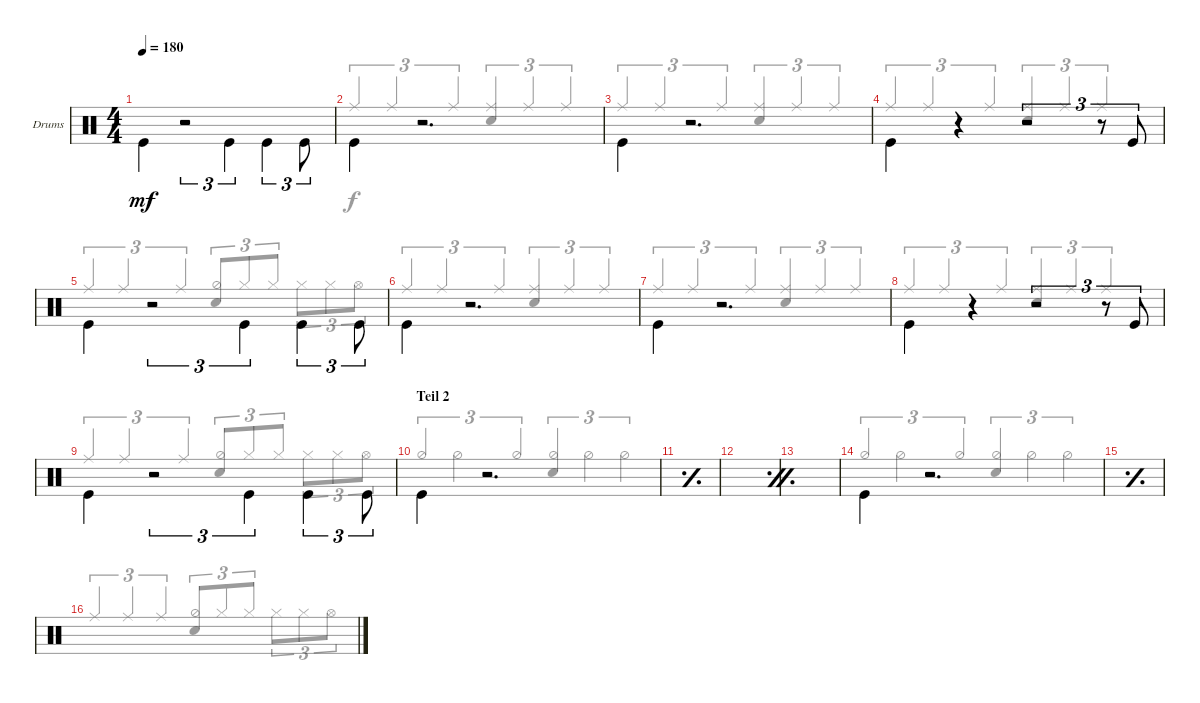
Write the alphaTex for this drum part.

\defaultSystemsLayout 4
\bracketExtendMode groupsimilarinstruments
\multiBarRest
\firstSystemTrackNameOrientation horizontal
\otherSystemsTrackNameOrientation horizontal
\track ("Drumkit" "Drums") {instrument percussion}
\staff {score}
\articulation defaults
\voice
\ts (4 4)
\tempo 180
\clef neutral
\ks c "Kick (hit)".4{dy mf beam invert}
r.2{tu (3 2)} "Kick (hit)".4{tu (3 2) beam invert} "Kick (hit)".4{tu (3 2) beam invert} "Kick (hit)".8{tu (3 2) beam invert} |
"Kick (hit)".4{beam invert} r.2{d} |
"Kick (hit)".4{beam invert} r.2{d} |
"Kick (hit)".4{beam invert} r.4 r.2{tu (3 2)} r.8{tu (3 2)} "Kick (hit)".8{tu (3 2)} |
"Kick (hit)".4{beam invert} r.2{tu (3 2)} "Kick (hit)".4{tu (3 2) beam invert} "Kick (hit)".4{tu (3 2) beam invert} "Kick (hit)".8{tu (3 2) beam invert} |
"Kick (hit)".4{beam invert} r.2{d} |
"Kick (hit)".4{beam invert} r.2{d} |
"Kick (hit)".4{beam invert} r.4 r.2{tu (3 2)} r.8{tu (3 2)} "Kick (hit)".8{tu (3 2)} |
"Kick (hit)".4{beam invert} r.2{tu (3 2)} "Kick (hit)".4{tu (3 2) beam invert} "Kick (hit)".4{tu (3 2) beam invert} "Kick (hit)".8{tu (3 2) beam invert} |
\section ("" "Teil 2")
"Kick (hit)".4{beam invert} r.2{d} |
\simile simple
|
\simile firstofdouble
|
\simile secondofdouble
|
\simile none "Kick (hit)".4{beam invert}
r.2{d} |
\simile simple
|
\simile firstofdouble
\voice
\clef neutral
\ottava regular
\simile none
\ks c "Ride (middle)".4{tu (3 2) dy f beam invert} "Ride (middle)".4{tu (3 2) beam invert} "Ride (middle)".4{tu (3 2) beam invert}
("Snare (hit) 2" "Hi-Hat (half)").8{tu (3 2) beam invert} "Hi-Hat (closed)".8{tu (3 2) beam invert} "Hi-Hat (closed)".8{tu (3 2) beam invert} "Hi-Hat (closed)".8{tu (3 2)} "Hi-Hat (closed)".8{tu (3 2)} "Hi-Hat (open)".8{tu (3 2)} |
"Ride (middle)".4{tu (3 2) beam invert} "Ride (middle)".4{tu (3 2) beam invert} "Ride (middle)".4{tu (3 2) beam invert} ("Ride (middle)" "Snare (hit) 2").4{tu (3 2) beam invert} "Ride (middle)".4{tu (3 2) beam invert} "Ride (middle)".4{tu (3 2) beam invert} |
"Ride (middle)".4{tu (3 2) beam invert} "Ride (middle)".4{tu (3 2) beam invert} "Ride (middle)".4{tu (3 2) beam invert} ("Ride (middle)" "Snare (hit) 2").4{tu (3 2) beam invert} "Ride (middle)".4{tu (3 2) beam invert} "Ride (middle)".4{tu (3 2) beam invert} |
"Ride (middle)".4{tu (3 2) beam invert} "Ride (middle)".4{tu (3 2) beam invert} "Ride (middle)".4{tu (3 2) beam invert} ("Ride (middle)" "Snare (hit) 2").4{tu (3 2) beam invert} "Ride (middle)".4{tu (3 2) beam invert} "Ride (middle)".4{tu (3 2) beam invert} |
"Ride (middle)".4{tu (3 2) beam invert} "Ride (middle)".4{tu (3 2) beam invert} "Ride (middle)".4{tu (3 2) beam invert} ("Snare (hit) 2" "Hi-Hat (half)").8{tu (3 2) beam invert} "Hi-Hat (closed)".8{tu (3 2) beam invert} "Hi-Hat (closed)".8{tu (3 2) beam invert} "Hi-Hat (closed)".8{tu (3 2)} "Hi-Hat (closed)".8{tu (3 2)} "Hi-Hat (open)".8{tu (3 2)} |
"Ride (middle)".4{tu (3 2) beam invert} "Ride (middle)".4{tu (3 2) beam invert} "Ride (middle)".4{tu (3 2) beam invert} ("Ride (middle)" "Snare (hit) 2").4{tu (3 2) beam invert} "Ride (middle)".4{tu (3 2) beam invert} "Ride (middle)".4{tu (3 2) beam invert} |
"Ride (middle)".4{tu (3 2) beam invert} "Ride (middle)".4{tu (3 2) beam invert} "Ride (middle)".4{tu (3 2) beam invert} ("Ride (middle)" "Snare (hit) 2").4{tu (3 2) beam invert} "Ride (middle)".4{tu (3 2) beam invert} "Ride (middle)".4{tu (3 2) beam invert} |
"Ride (middle)".4{tu (3 2) beam invert} "Ride (middle)".4{tu (3 2) beam invert} "Ride (middle)".4{tu (3 2) beam invert} ("Ride (middle)" "Snare (hit) 2").4{tu (3 2) beam invert} "Ride (middle)".4{tu (3 2) beam invert} "Ride (middle)".4{tu (3 2) beam invert} |
"Ride (middle)".4{tu (3 2) beam invert} "Ride (middle)".4{tu (3 2) beam invert} "Ride (middle)".4{tu (3 2) beam invert} ("Snare (hit) 2" "Hi-Hat (half)").8{tu (3 2) beam invert} "Hi-Hat (closed)".8{tu (3 2) beam invert} "Hi-Hat (closed)".8{tu (3 2) beam invert} "Hi-Hat (closed)".8{tu (3 2)} "Hi-Hat (closed)".8{tu (3 2)} "Hi-Hat (open)".8{tu (3 2)} |
"Hi-Hat (half)".4{tu (3 2) beam invert} "Hi-Hat (half)".4{tu (3 2)} "Hi-Hat (half)".4{tu (3 2)} ("Hi-Hat (half)" "Snare (hit) 2").4{tu (3 2) beam invert} "Hi-Hat (half)".4{tu (3 2)} "Hi-Hat (half)".4{tu (3 2)} |
\simile simple
|
\simile firstofdouble
|
\simile secondofdouble
|
\simile none "Hi-Hat (half)".4{tu (3 2) beam invert} "Hi-Hat (half)".4{tu (3 2)} "Hi-Hat (half)".4{tu (3 2)}
("Hi-Hat (half)" "Snare (hit) 2").4{tu (3 2) beam invert} "Hi-Hat (half)".4{tu (3 2)} "Hi-Hat (half)".4{tu (3 2)} |
\simile simple
|
\simile firstofdouble
